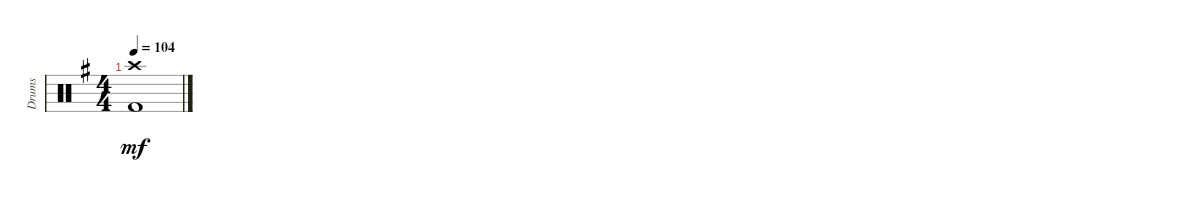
\track ("Drums" "Drums") {instrument percussion}
\staff {score}
\articulation defaults
\ts (4 4)
\tempo 104
\clef neutral
\ks g
("Crash high (hit)" "Kick (hit) 2").1{dy mf}
